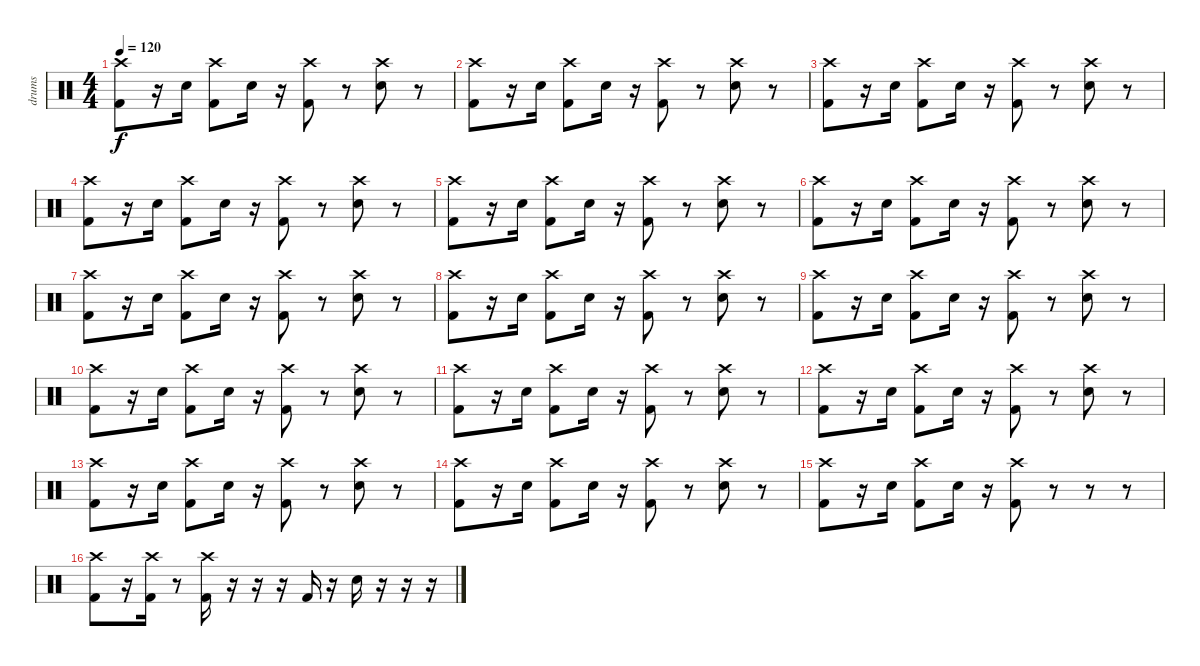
\track ("drums" "drums") {instrument percussion}
\staff {score}
\articulation defaults
\ts (4 4)
\tempo 120
\clef neutral
\ks c
("Crash high (hit)" "Kick (hit) 2").8{dy f} r.16 "Snare (hit) 2".16 ("Crash high (hit)" "Kick (hit) 2").8 "Snare (hit) 2".16 r.16 ("Crash high (hit)" "Kick (hit) 2").8 r.8 ("Crash high (hit)" "Snare (hit) 2").8 r.8 |
("Crash high (hit)" "Kick (hit) 2").8 r.16 "Snare (hit) 2".16 ("Crash high (hit)" "Kick (hit) 2").8 "Snare (hit) 2".16 r.16 ("Crash high (hit)" "Kick (hit) 2").8 r.8 ("Crash high (hit)" "Snare (hit) 2").8 r.8 |
("Crash high (hit)" "Kick (hit) 2").8 r.16 "Snare (hit) 2".16 ("Crash high (hit)" "Kick (hit) 2").8 "Snare (hit) 2".16 r.16 ("Crash high (hit)" "Kick (hit) 2").8 r.8 ("Crash high (hit)" "Snare (hit) 2").8 r.8 |
("Crash high (hit)" "Kick (hit) 2").8 r.16 "Snare (hit) 2".16 ("Crash high (hit)" "Kick (hit) 2").8 "Snare (hit) 2".16 r.16 ("Crash high (hit)" "Kick (hit) 2").8 r.8 ("Crash high (hit)" "Snare (hit) 2").8 r.8 |
("Crash high (hit)" "Kick (hit) 2").8 r.16 "Snare (hit) 2".16 ("Crash high (hit)" "Kick (hit) 2").8 "Snare (hit) 2".16 r.16 ("Crash high (hit)" "Kick (hit) 2").8 r.8 ("Crash high (hit)" "Snare (hit) 2").8 r.8 |
("Crash high (hit)" "Kick (hit) 2").8 r.16 "Snare (hit) 2".16 ("Crash high (hit)" "Kick (hit) 2").8 "Snare (hit) 2".16 r.16 ("Crash high (hit)" "Kick (hit) 2").8 r.8 ("Crash high (hit)" "Snare (hit) 2").8 r.8 |
("Crash high (hit)" "Kick (hit) 2").8 r.16 "Snare (hit) 2".16 ("Crash high (hit)" "Kick (hit) 2").8 "Snare (hit) 2".16 r.16 ("Crash high (hit)" "Kick (hit) 2").8 r.8 ("Crash high (hit)" "Snare (hit) 2").8 r.8 |
("Crash high (hit)" "Kick (hit) 2").8 r.16 "Snare (hit) 2".16 ("Crash high (hit)" "Kick (hit) 2").8 "Snare (hit) 2".16 r.16 ("Crash high (hit)" "Kick (hit) 2").8 r.8 ("Crash high (hit)" "Snare (hit) 2").8 r.8 |
("Crash high (hit)" "Kick (hit) 2").8 r.16 "Snare (hit) 2".16 ("Crash high (hit)" "Kick (hit) 2").8 "Snare (hit) 2".16 r.16 ("Crash high (hit)" "Kick (hit) 2").8 r.8 ("Crash high (hit)" "Snare (hit) 2").8 r.8 |
("Crash high (hit)" "Kick (hit) 2").8 r.16 "Snare (hit) 2".16 ("Crash high (hit)" "Kick (hit) 2").8 "Snare (hit) 2".16 r.16 ("Crash high (hit)" "Kick (hit) 2").8 r.8 ("Crash high (hit)" "Snare (hit) 2").8 r.8 |
("Crash high (hit)" "Kick (hit) 2").8 r.16 "Snare (hit) 2".16 ("Crash high (hit)" "Kick (hit) 2").8 "Snare (hit) 2".16 r.16 ("Crash high (hit)" "Kick (hit) 2").8 r.8 ("Crash high (hit)" "Snare (hit) 2").8 r.8 |
("Crash high (hit)" "Kick (hit) 2").8 r.16 "Snare (hit) 2".16 ("Crash high (hit)" "Kick (hit) 2").8 "Snare (hit) 2".16 r.16 ("Crash high (hit)" "Kick (hit) 2").8 r.8 ("Crash high (hit)" "Snare (hit) 2").8 r.8 |
("Crash high (hit)" "Kick (hit) 2").8 r.16 "Snare (hit) 2".16 ("Crash high (hit)" "Kick (hit) 2").8 "Snare (hit) 2".16 r.16 ("Crash high (hit)" "Kick (hit) 2").8 r.8 ("Crash high (hit)" "Snare (hit) 2").8 r.8 |
("Crash high (hit)" "Kick (hit) 2").8 r.16 "Snare (hit) 2".16 ("Crash high (hit)" "Kick (hit) 2").8 "Snare (hit) 2".16 r.16 ("Crash high (hit)" "Kick (hit) 2").8 r.8 ("Crash high (hit)" "Snare (hit) 2").8 r.8 |
("Crash high (hit)" "Kick (hit) 2").8 r.16 "Snare (hit) 2".16 ("Crash high (hit)" "Kick (hit) 2").8 "Snare (hit) 2".16 r.16 ("Crash high (hit)" "Kick (hit) 2").8 r.8 r.8 r.8 |
("Crash high (hit)" "Kick (hit) 2").8 r.16 ("Crash high (hit)" "Kick (hit) 2").16 r.8 ("Crash high (hit)" "Kick (hit) 2").16 r.16 r.16 r.16 "Kick (hit) 2".16 r.16 "Electric Snare (hit)".16 r.16 r.16 r.16
